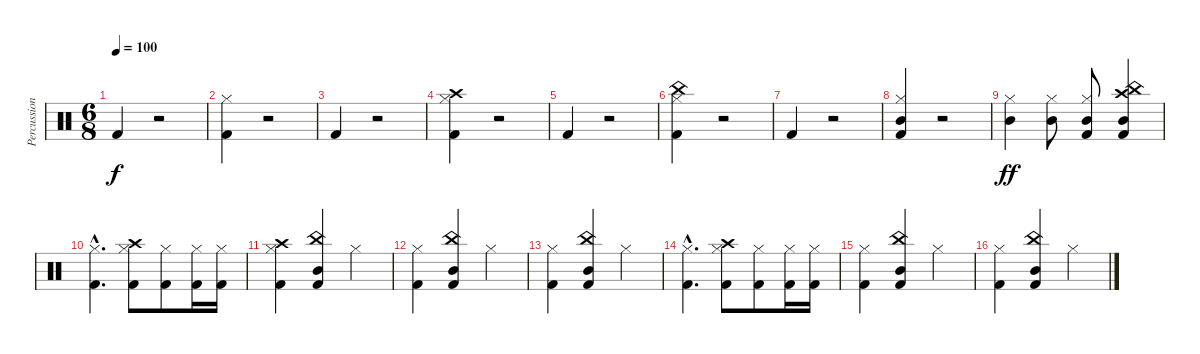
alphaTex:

\track ("Percussion" "Percussion") {instrument percussion}
\staff {score}
\articulation defaults
\ts (6 8)
\tempo 100
\clef neutral
\ks c "Kick (hit) 2".4{dy f}
r.2 |
("Kick (hit) 2" "Hi-Hat (closed)").4 r.2 |
"Kick (hit) 2".4 r.2 |
("Kick (hit) 2" "Hi-Hat (closed)" "Crash high (hit)").4 r.2 |
"Kick (hit) 2".4 r.2 |
("Kick (hit) 2" "Hi-Hat (closed)" "China (hit)").4 r.2 |
"Kick (hit) 2".4 r.2 |
("Kick (hit) 2" "Mid Tom (hit)" "Hi-Hat (closed)").4 r.2 |
("Mid Tom (hit)" "Hi-Hat (closed)").4{dy ff} ("Mid Tom (hit)" "Hi-Hat (closed)").8 ("Kick (hit) 2" "Mid Tom (hit)" "Hi-Hat (closed)").8 ("Kick (hit) 2" "Mid Tom (hit)" "Crash high (hit)" "China (hit)").4 |
("Kick (hit) 2"{hac} "Hi-Hat (closed)"{hac}).4{d} ("Kick (hit) 2" "Hi-Hat (closed)" "Crash high (hit)").8 ("Kick (hit) 2" "Hi-Hat (closed)").8 ("Kick (hit) 2" "Hi-Hat (closed)").16 ("Kick (hit) 2" "Hi-Hat (closed)").16 |
("Kick (hit) 2" "Hi-Hat (closed)" "Crash high (hit)").4 ("Kick (hit) 2" "Mid Tom (hit)" "China (hit)").4 "Hi-Hat (closed)".4 |
("Kick (hit) 2" "Hi-Hat (closed)").4 ("Kick (hit) 2" "Mid Tom (hit)" "China (hit)").4 "Hi-Hat (closed)".4 |
("Kick (hit) 2" "Hi-Hat (closed)").4 ("Kick (hit) 2" "Mid Tom (hit)" "China (hit)").4 "Hi-Hat (closed)".4 |
("Kick (hit) 2"{hac} "Hi-Hat (closed)"{hac}).4{d} ("Kick (hit) 2" "Hi-Hat (closed)" "Crash high (hit)").8 ("Kick (hit) 2" "Hi-Hat (closed)").8 ("Kick (hit) 2" "Hi-Hat (closed)").16 ("Kick (hit) 2" "Hi-Hat (closed)").16 |
("Kick (hit) 2" "Hi-Hat (closed)").4 ("Kick (hit) 2" "Mid Tom (hit)" "China (hit)").4 "Hi-Hat (closed)".4 |
("Kick (hit) 2" "Hi-Hat (closed)").4 ("Kick (hit) 2" "Mid Tom (hit)" "China (hit)").4 "Hi-Hat (closed)".4
